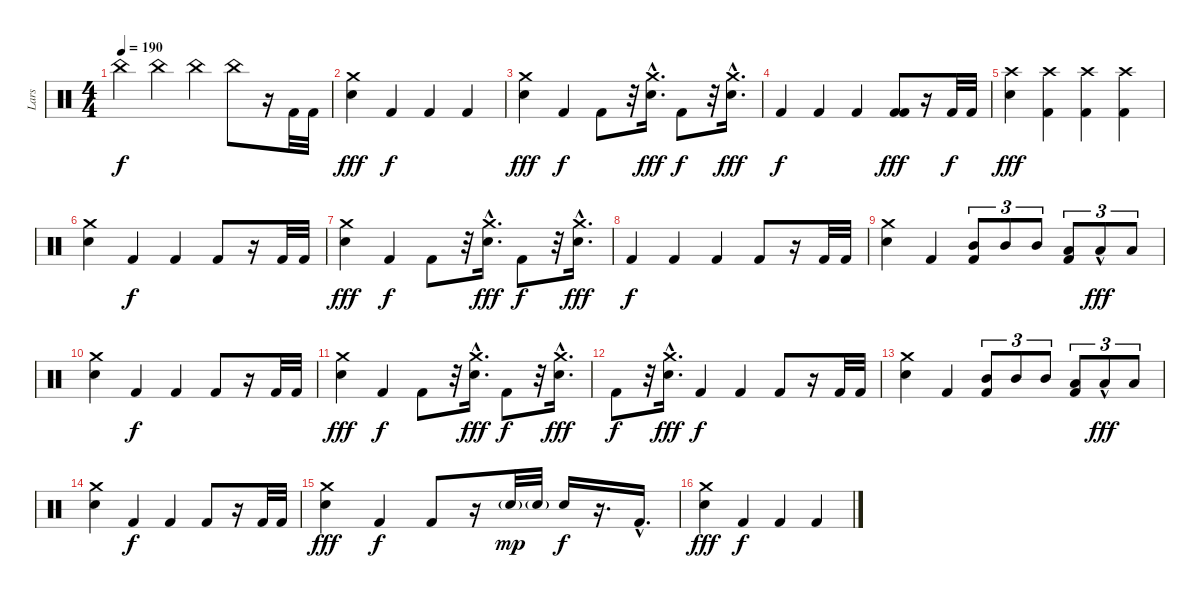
\track ("Lars" "Lars") {instrument percussion}
\staff {score}
\articulation defaults
\ts (4 4)
\tempo 190
\tempo 120
\tempo 190
\clef neutral
\ks c "China (hit)".4{dy f} "China (hit)".4 "China (hit)".4 "China (hit)".8
r.16 "Kick (hit) 2".32 "Kick (hit) 2".32 |
("Crash medium (hit)" "Snare (hit) 2").4{dy fff} "Kick (hit) 2".4{dy f} "Kick (hit) 2".4 "Kick (hit) 2".4 |
("Crash medium (hit)" "Snare (hit) 2").4{dy fff} "Kick (hit) 2".4{dy f} "Kick (hit) 2".8 r.32 ("Crash medium (hit)"{hac} "Snare (hit) 2"{hac}).16{d dy fff} "Kick (hit) 2".8{dy f} r.32 ("Crash medium (hit)"{hac} "Snare (hit) 2"{hac}).16{d dy fff} |
"Kick (hit) 2".4{dy f} "Kick (hit) 2".4 "Kick (hit) 2".4 ("Kick (hit) 2" "Kick (hit) 2").8{dy fff} r.16 "Kick (hit) 2".32{dy f} "Kick (hit) 2".32 |
("Crash high (hit)" "Snare (hit) 2").4{dy fff} ("Crash high (hit)" "Kick (hit) 2").4 ("Crash high (hit)" "Kick (hit) 2").4 ("Crash high (hit)" "Kick (hit) 2").4 |
("Crash medium (hit)" "Snare (hit) 2").4 "Kick (hit) 2".4{dy f} "Kick (hit) 2".4 "Kick (hit) 2".8 r.16 "Kick (hit) 2".32 "Kick (hit) 2".32 |
("Crash medium (hit)" "Snare (hit) 2").4{dy fff} "Kick (hit) 2".4{dy f} "Kick (hit) 2".8 r.32 ("Crash medium (hit)"{hac} "Snare (hit) 2"{hac}).16{d dy fff} "Kick (hit) 2".8{dy f} r.32 ("Crash medium (hit)"{hac} "Snare (hit) 2"{hac}).16{d dy fff} |
"Kick (hit) 2".4{dy f} "Kick (hit) 2".4 "Kick (hit) 2".4 "Kick (hit) 2".8 r.16 "Kick (hit) 2".32 "Kick (hit) 2".32 |
("Crash medium (hit)" "Snare (hit) 2").4 "Kick (hit) 2".4 ("Mid Tom (hit)" "Kick (hit) 2").8{tu (3 2)} "Mid Tom (hit)".8{tu (3 2)} "Mid Tom (hit)".8{tu (3 2)} ("Low Tom (hit)" "Kick (hit) 2").8{tu (3 2)} "Low Tom (hit)"{hac}.8{tu (3 2) dy fff} "Low Tom (hit)".8{tu (3 2)} |
("Crash medium (hit)" "Snare (hit) 2").4 "Kick (hit) 2".4{dy f} "Kick (hit) 2".4 "Kick (hit) 2".8 r.16 "Kick (hit) 2".32 "Kick (hit) 2".32 |
("Crash medium (hit)" "Snare (hit) 2").4{dy fff} "Kick (hit) 2".4{dy f} "Kick (hit) 2".8 r.32 ("Crash medium (hit)"{hac} "Snare (hit) 2"{hac}).16{d dy fff} "Kick (hit) 2".8{dy f} r.32 ("Crash medium (hit)"{hac} "Snare (hit) 2"{hac}).16{d dy fff} |
"Kick (hit) 2".8{dy f} r.32 ("Crash medium (hit)"{hac} "Snare (hit) 2"{hac}).16{d dy fff} "Kick (hit) 2".4{dy f} "Kick (hit) 2".4 "Kick (hit) 2".8 r.16 "Kick (hit) 2".32 "Kick (hit) 2".32 |
("Crash medium (hit)" "Snare (hit) 2").4 "Kick (hit) 2".4 ("Mid Tom (hit)" "Kick (hit) 2").8{tu (3 2)} "Mid Tom (hit)".8{tu (3 2)} "Mid Tom (hit)".8{tu (3 2)} ("Low Tom (hit)" "Kick (hit) 2").8{tu (3 2)} "Low Tom (hit)"{hac}.8{tu (3 2) dy fff} "Low Tom (hit)".8{tu (3 2)} |
("Crash medium (hit)" "Snare (hit) 2").4 "Kick (hit) 2".4{dy f} "Kick (hit) 2".4 "Kick (hit) 2".8 r.16 "Kick (hit) 2".32 "Kick (hit) 2".32 |
("Crash medium (hit)" "Snare (hit) 2").4{dy fff} "Kick (hit) 2".4{dy f} "Kick (hit) 2".8 r.16 "Snare (hit) 2"{g}.32{dy mp} "Snare (hit) 2"{g}.32 "Snare (hit) 2".16{dy f} r.16{d} "Kick (hit) 2"{hac}.16{d} |
("Crash medium (hit)" "Snare (hit) 2").4{dy fff} "Kick (hit) 2".4{dy f} "Kick (hit) 2".4 "Kick (hit) 2".4
